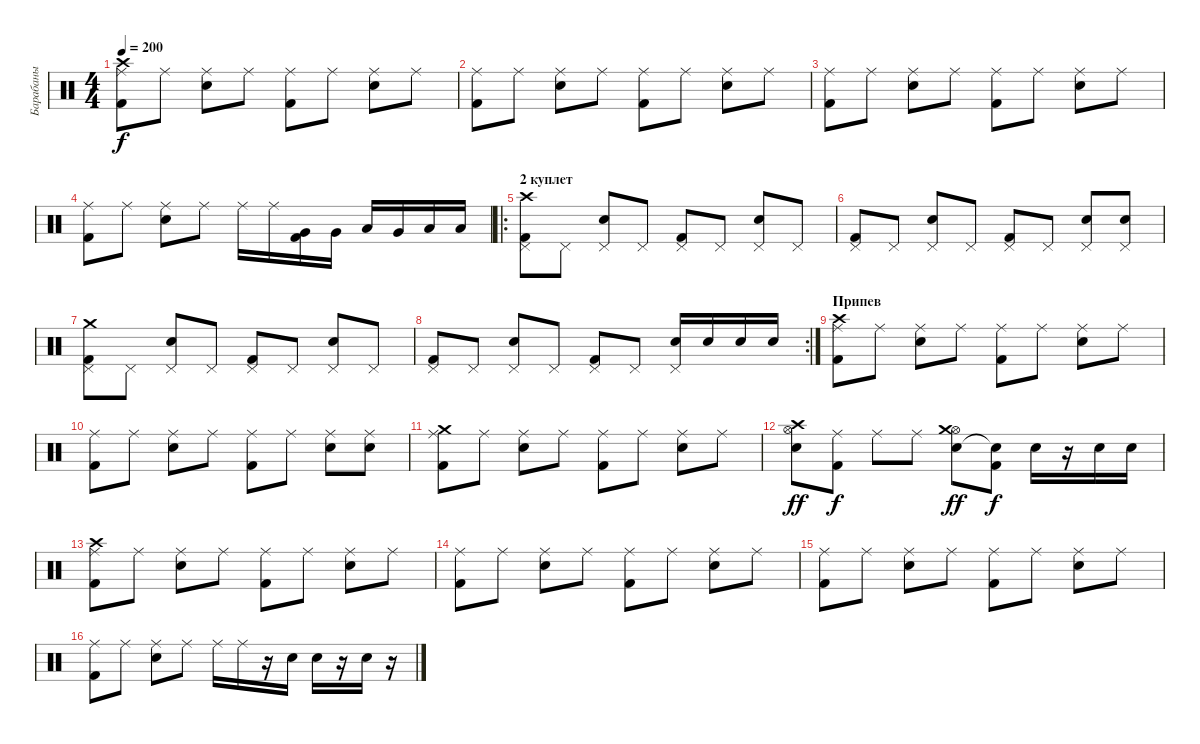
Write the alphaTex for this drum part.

\track ("Барабаны" "Барабаны") {instrument percussion}
\staff {score}
\articulation defaults
\ts (4 4)
\tempo 200
\clef neutral
\ks c
("Ride (middle)" "Crash high (hit)" "Kick (hit) 2").8{dy f} "Ride (middle)".8 ("Ride (middle)" "Electric Snare (hit)").8 "Ride (middle)".8 ("Ride (middle)" "Kick (hit) 2").8 "Ride (middle)".8 ("Ride (middle)" "Electric Snare (hit)").8 "Ride (middle)".8 |
("Ride (middle)" "Kick (hit) 2").8 "Ride (middle)".8 ("Ride (middle)" "Electric Snare (hit)").8 "Ride (middle)".8 ("Ride (middle)" "Kick (hit) 2").8 "Ride (middle)".8 ("Ride (middle)" "Electric Snare (hit)").8 "Ride (middle)".8 |
("Ride (middle)" "Kick (hit) 2").8 "Ride (middle)".8 ("Ride (middle)" "Electric Snare (hit)").8 "Ride (middle)".8 ("Ride (middle)" "Kick (hit) 2").8 "Ride (middle)".8 ("Ride (middle)" "Electric Snare (hit)").8 "Ride (middle)".8 |
("Ride (middle)" "Kick (hit) 2").8 "Ride (middle)".8 ("Ride (middle)" "Electric Snare (hit)").8 "Ride (middle)".8 "Ride (middle)".16 "Ride (middle)".16 ("Very Low Tom (hit)" "Kick (hit) 2").16 "Very Low Tom (hit)".16 "Low Tom (hit)".16 "Very Low Tom (hit)".16 "Low Tom (hit)".16 "Low Tom (hit)".16 |
\ro
\section ("" "2 куплет")
("Pedal Hi-Hat (hit)" "Crash high (hit)" "Kick (hit) 2").8 "Pedal Hi-Hat (hit)".8 ("Pedal Hi-Hat (hit)" "Electric Snare (hit)").8 "Pedal Hi-Hat (hit)".8 ("Pedal Hi-Hat (hit)" "Kick (hit) 2").8 "Pedal Hi-Hat (hit)".8 ("Pedal Hi-Hat (hit)" "Electric Snare (hit)").8 "Pedal Hi-Hat (hit)".8 |
("Pedal Hi-Hat (hit)" "Kick (hit) 2").8 "Pedal Hi-Hat (hit)".8 ("Pedal Hi-Hat (hit)" "Electric Snare (hit)").8 "Pedal Hi-Hat (hit)".8 ("Pedal Hi-Hat (hit)" "Kick (hit) 2").8 "Pedal Hi-Hat (hit)".8 ("Pedal Hi-Hat (hit)" "Electric Snare (hit)").8 ("Pedal Hi-Hat (hit)" "Electric Snare (hit)").8 |
("Pedal Hi-Hat (hit)" "Crash medium (hit)" "Kick (hit) 2").8 "Pedal Hi-Hat (hit)".8 ("Pedal Hi-Hat (hit)" "Electric Snare (hit)").8 "Pedal Hi-Hat (hit)".8 ("Pedal Hi-Hat (hit)" "Kick (hit) 2").8 "Pedal Hi-Hat (hit)".8 ("Pedal Hi-Hat (hit)" "Electric Snare (hit)").8 "Pedal Hi-Hat (hit)".8 |
\rc 2
("Pedal Hi-Hat (hit)" "Kick (hit) 2").8 "Pedal Hi-Hat (hit)".8 ("Pedal Hi-Hat (hit)" "Electric Snare (hit)").8 "Pedal Hi-Hat (hit)".8 ("Pedal Hi-Hat (hit)" "Kick (hit) 2").8 "Pedal Hi-Hat (hit)".8 ("Pedal Hi-Hat (hit)" "Electric Snare (hit)").16 "Electric Snare (hit)".16 "Electric Snare (hit)".16 "Electric Snare (hit)".16 |
\section ("" "Припев")
("Ride (middle)" "Crash high (hit)" "Kick (hit) 2").8 "Ride (middle)".8 ("Ride (middle)" "Electric Snare (hit)").8 "Ride (middle)".8 ("Ride (middle)" "Kick (hit) 2").8 "Ride (middle)".8 ("Ride (middle)" "Electric Snare (hit)").8 "Ride (middle)".8 |
("Ride (middle)" "Kick (hit) 2").8 "Ride (middle)".8 ("Ride (middle)" "Electric Snare (hit)").8 "Ride (middle)".8 ("Ride (middle)" "Kick (hit) 2").8 "Ride (middle)".8 ("Ride (middle)" "Electric Snare (hit)").8 ("Ride (middle)" "Electric Snare (hit)").8 |
("Ride (middle)" "Crash medium (hit)" "Kick (hit) 2").8 "Ride (middle)".8 ("Ride (middle)" "Electric Snare (hit)").8 "Ride (middle)".8 ("Ride (middle)" "Kick (hit) 2").8 "Ride (middle)".8 ("Ride (middle)" "Electric Snare (hit)").8 "Ride (middle)".8 |
("Hi-Hat (open)" "Electric Snare (hit)" "Crash high (hit)").8{dy ff} ("Ride (middle)" "Kick (hit) 2").8{dy f} "Ride (middle)".8 "Ride (middle)".8 ("Hi-Hat (open)" "Electric Snare (hit)" "Crash medium (hit)").8{dy ff} ("Kick (hit) 2" "Snare (hit)"{t}).8{dy f} "Electric Snare (hit)".16 r.16 "Electric Snare (hit)".16 "Electric Snare (hit)".16 |
("Ride (middle)" "Crash high (hit)" "Kick (hit) 2").8 "Ride (middle)".8 ("Ride (middle)" "Electric Snare (hit)").8 "Ride (middle)".8 ("Ride (middle)" "Kick (hit) 2").8 "Ride (middle)".8 ("Ride (middle)" "Electric Snare (hit)").8 "Ride (middle)".8 |
("Ride (middle)" "Kick (hit) 2").8 "Ride (middle)".8 ("Ride (middle)" "Electric Snare (hit)").8 "Ride (middle)".8 ("Ride (middle)" "Kick (hit) 2").8 "Ride (middle)".8 ("Ride (middle)" "Electric Snare (hit)").8 "Ride (middle)".8 |
("Ride (middle)" "Kick (hit) 2").8 "Ride (middle)".8 ("Ride (middle)" "Electric Snare (hit)").8 "Ride (middle)".8 ("Ride (middle)" "Kick (hit) 2").8 "Ride (middle)".8 ("Ride (middle)" "Electric Snare (hit)").8 "Ride (middle)".8 |
("Ride (middle)" "Kick (hit) 2").8 "Ride (middle)".8 ("Ride (middle)" "Electric Snare (hit)").8 "Ride (middle)".8 "Ride (middle)".16 "Ride (middle)".16 r.16 "Electric Snare (hit)".16 "Electric Snare (hit)".16 r.16 "Electric Snare (hit)".16 r.16
